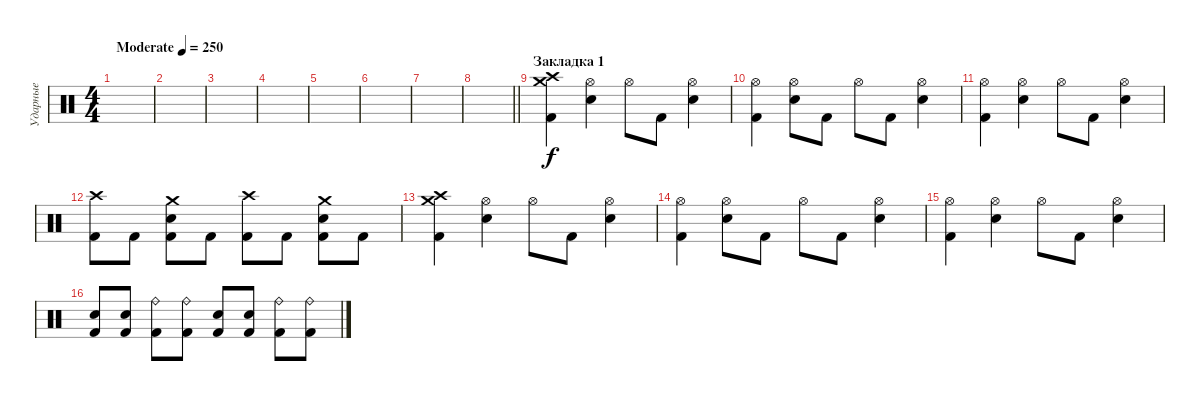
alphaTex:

\track ("Ударные" "Ударные") {instrument percussion}
\staff {score}
\articulation defaults
\ts (4 4)
\tempo (250 "Moderate")
\clef neutral
\ks c
|
|
|
|
|
|
|
\barLineRight lightlight
|
\section ("" "Закладка 1")
("Crash medium (hit)" "Crash high (hit)" "Kick (hit) 2").4 ("Hi-Hat (open)" "Electric Snare (hit)").4 "Hi-Hat (open)".8 "Kick (hit) 2".8 ("Hi-Hat (open)" "Electric Snare (hit)").4 |
("Hi-Hat (open)" "Kick (hit) 2").4 ("Hi-Hat (open)" "Electric Snare (hit)").8 "Kick (hit) 2".8 "Hi-Hat (open)".8 "Kick (hit) 2".8 ("Hi-Hat (open)" "Electric Snare (hit)").4 |
("Hi-Hat (open)" "Kick (hit) 2").4 ("Hi-Hat (open)" "Electric Snare (hit)").4 "Hi-Hat (open)".8 "Kick (hit) 2".8 ("Hi-Hat (open)" "Electric Snare (hit)").4 |
("Crash high (hit)" "Kick (hit) 2").8 "Kick (hit) 2".8 ("Crash medium (hit)" "Electric Snare (hit)" "Kick (hit) 2").8 "Kick (hit) 2".8 ("Crash high (hit)" "Kick (hit) 2").8 "Kick (hit) 2".8 ("Crash medium (hit)" "Electric Snare (hit)" "Kick (hit) 2").8 "Kick (hit) 2".8 |
("Crash medium (hit)" "Crash high (hit)" "Kick (hit) 2").4 ("Hi-Hat (open)" "Electric Snare (hit)").4 "Hi-Hat (open)".8 "Kick (hit) 2".8 ("Hi-Hat (open)" "Electric Snare (hit)").4 |
("Hi-Hat (open)" "Kick (hit) 2").4 ("Hi-Hat (open)" "Electric Snare (hit)").8 "Kick (hit) 2".8 "Hi-Hat (open)".8 "Kick (hit) 2".8 ("Hi-Hat (open)" "Electric Snare (hit)").4 |
("Hi-Hat (open)" "Kick (hit) 2").4 ("Hi-Hat (open)" "Electric Snare (hit)").4 "Hi-Hat (open)".8 "Kick (hit) 2".8 ("Hi-Hat (open)" "Electric Snare (hit)").4 |
("Electric Snare (hit)" "Kick (hit) 2").8 ("Electric Snare (hit)" "Kick (hit) 2").8 ("Ride (bell)" "Kick (hit) 2").8 ("Ride (bell)" "Kick (hit) 2").8 ("Electric Snare (hit)" "Kick (hit) 2").8 ("Electric Snare (hit)" "Kick (hit) 2").8 ("Ride (bell)" "Kick (hit) 2").8 ("Ride (bell)" "Kick (hit) 2").8
